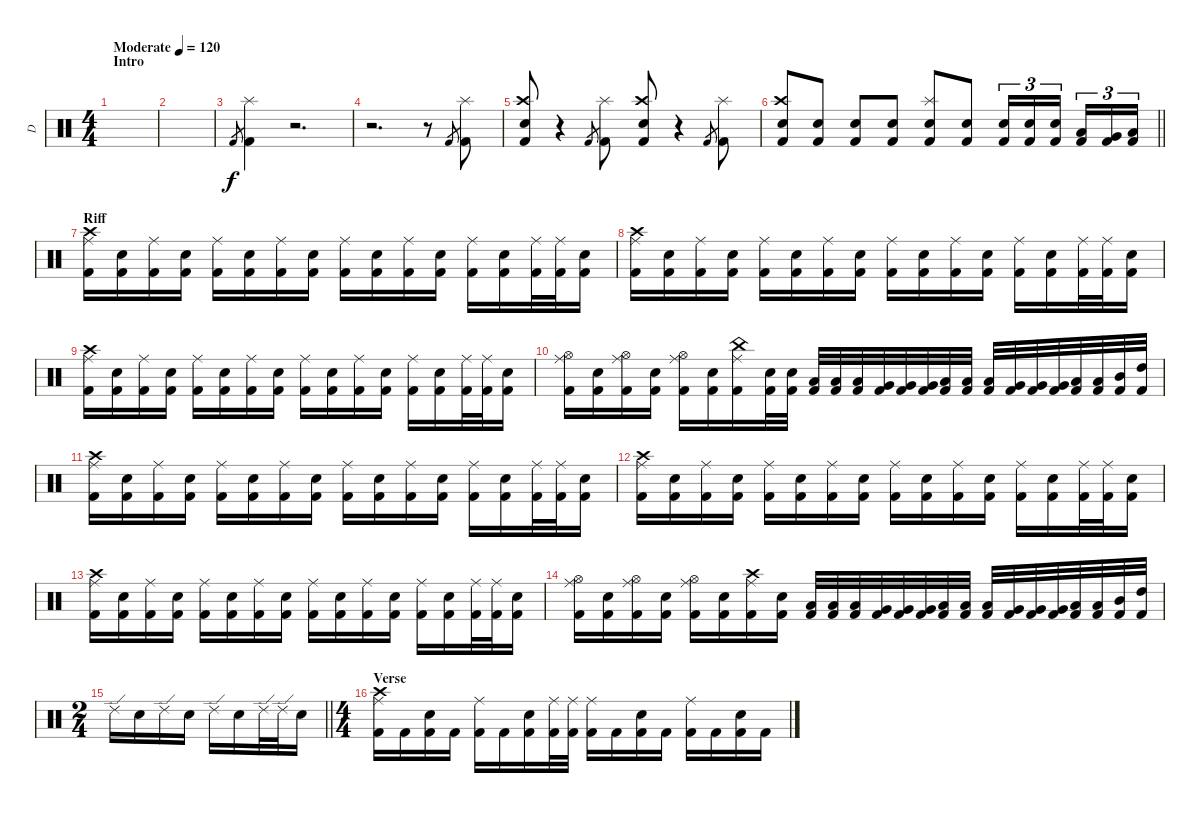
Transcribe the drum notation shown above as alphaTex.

\track ("D" "D") {instrument percussion}
\staff {score}
\articulation defaults
\ts (4 4)
\section ("" "Intro")
\tempo (120 "Moderate")
\clef neutral
\ks c
|
|
"Kick (hit) 2".8{gr} ("Splash (hit)" "Kick (hit) 2").4 r.2{d} |
r.2{d} r.8 "Kick (hit) 2".8{gr} ("Splash (hit)" "Kick (hit) 2").8 |
("Crash high (hit)" "Electric Snare (hit)" "Kick (hit) 2").8 r.4 "Kick (hit) 2".8{gr} ("Splash (hit)" "Kick (hit) 2").8 ("Crash high (hit)" "Electric Snare (hit)" "Kick (hit) 2").8 r.4 "Kick (hit) 2".8{gr} ("Splash (hit)" "Kick (hit) 2").8 |
\barLineRight lightlight
("Crash high (hit)" "Electric Snare (hit)" "Kick (hit) 2").8 ("Electric Snare (hit)" "Kick (hit) 2").8 ("Electric Snare (hit)" "Kick (hit) 2").8 ("Electric Snare (hit)" "Kick (hit) 2").8 ("Splash (hit)" "Electric Snare (hit)" "Kick (hit) 2").8 ("Electric Snare (hit)" "Kick (hit) 2").8 ("Electric Snare (hit)" "Kick (hit) 2").16{tu (3 2)} ("Electric Snare (hit)" "Kick (hit) 2").16{tu (3 2)} ("Electric Snare (hit)" "Kick (hit) 2").16{tu (3 2) beam splitsecondary} ("Low Floor Tom (hit)" "Kick (hit) 2").16{tu (3 2)} ("Very Low Tom (hit)" "Kick (hit) 2").16{tu (3 2)} ("Low Tom (hit)" "Kick (hit) 2").16{tu (3 2)} |
\section ("" "Riff")
("Crash high (hit)" "Ride (middle)" "Kick (hit) 2").16 ("Electric Snare (hit)" "Kick (hit) 2").16 ("Ride (middle)" "Kick (hit) 2").16 ("Electric Snare (hit)" "Kick (hit) 2").16 ("Ride (middle)" "Kick (hit) 2").16 ("Electric Snare (hit)" "Kick (hit) 2").16 ("Ride (middle)" "Kick (hit) 2").16 ("Electric Snare (hit)" "Kick (hit) 2").16 ("Ride (middle)" "Kick (hit) 2").16 ("Electric Snare (hit)" "Kick (hit) 2").16 ("Ride (middle)" "Kick (hit) 2").16 ("Electric Snare (hit)" "Kick (hit) 2").16 ("Ride (middle)" "Kick (hit) 2").16 ("Electric Snare (hit)" "Kick (hit) 2").16 ("Ride (middle)" "Kick (hit) 2").32 ("Ride (middle)" "Kick (hit) 2").32 ("Electric Snare (hit)" "Kick (hit) 2").16 |
("Crash high (hit)" "Ride (middle)" "Kick (hit) 2").16 ("Electric Snare (hit)" "Kick (hit) 2").16 ("Ride (middle)" "Kick (hit) 2").16 ("Electric Snare (hit)" "Kick (hit) 2").16 ("Ride (middle)" "Kick (hit) 2").16 ("Electric Snare (hit)" "Kick (hit) 2").16 ("Ride (middle)" "Kick (hit) 2").16 ("Electric Snare (hit)" "Kick (hit) 2").16 ("Ride (middle)" "Kick (hit) 2").16 ("Electric Snare (hit)" "Kick (hit) 2").16 ("Ride (middle)" "Kick (hit) 2").16 ("Electric Snare (hit)" "Kick (hit) 2").16 ("Ride (middle)" "Kick (hit) 2").16 ("Electric Snare (hit)" "Kick (hit) 2").16 ("Ride (middle)" "Kick (hit) 2").32 ("Ride (middle)" "Kick (hit) 2").32 ("Electric Snare (hit)" "Kick (hit) 2").16 |
("Crash high (hit)" "Ride (middle)" "Kick (hit) 2").16 ("Electric Snare (hit)" "Kick (hit) 2").16 ("Ride (middle)" "Kick (hit) 2").16 ("Electric Snare (hit)" "Kick (hit) 2").16 ("Ride (middle)" "Kick (hit) 2").16 ("Electric Snare (hit)" "Kick (hit) 2").16 ("Ride (middle)" "Kick (hit) 2").16 ("Electric Snare (hit)" "Kick (hit) 2").16 ("Ride (middle)" "Kick (hit) 2").16 ("Electric Snare (hit)" "Kick (hit) 2").16 ("Ride (middle)" "Kick (hit) 2").16 ("Electric Snare (hit)" "Kick (hit) 2").16 ("Ride (middle)" "Kick (hit) 2").16 ("Electric Snare (hit)" "Kick (hit) 2").16 ("Ride (middle)" "Kick (hit) 2").32 ("Ride (middle)" "Kick (hit) 2").32 ("Electric Snare (hit)" "Kick (hit) 2").16 |
("Hi-Hat (open)" "Ride (middle)" "Kick (hit) 2").16 ("Electric Snare (hit)" "Kick (hit) 2").16 ("Hi-Hat (open)" "Ride (middle)" "Kick (hit) 2").16 ("Electric Snare (hit)" "Kick (hit) 2").16 ("Hi-Hat (open)" "Ride (middle)" "Kick (hit) 2").16 ("Electric Snare (hit)" "Kick (hit) 2").16 ("China (hit)" "Ride (middle)" "Kick (hit) 2").16 ("Electric Snare (hit)" "Kick (hit) 2").32 ("Electric Snare (hit)" "Kick (hit) 2").32 ("Low Tom (hit)" "Kick (hit) 2").32 ("Low Tom (hit)" "Kick (hit) 2").32 ("Low Tom (hit)" "Kick (hit) 2").32 ("Very Low Tom (hit)" "Kick (hit) 2").32 ("Very Low Tom (hit)" "Kick (hit) 2").32 ("Very Low Tom (hit)" "Kick (hit) 2").32 ("Low Floor Tom (hit)" "Kick (hit) 2").32 ("Low Floor Tom (hit)" "Kick (hit) 2").32 ("Low Floor Tom (hit)" "Kick (hit) 2").32 ("Very Low Tom (hit)" "Kick (hit) 2").32 ("Very Low Tom (hit)" "Kick (hit) 2").32 ("Very Low Tom (hit)" "Kick (hit) 2").32 ("Low Tom (hit)" "Kick (hit) 2").32 ("Low Tom (hit)" "Kick (hit) 2").32 ("Mid Tom (hit)" "Kick (hit) 2").32 ("High Tom (hit)" "Kick (hit) 2").32 |
("Crash high (hit)" "Ride (middle)" "Kick (hit) 2").16 ("Electric Snare (hit)" "Kick (hit) 2").16 ("Ride (middle)" "Kick (hit) 2").16 ("Electric Snare (hit)" "Kick (hit) 2").16 ("Ride (middle)" "Kick (hit) 2").16 ("Electric Snare (hit)" "Kick (hit) 2").16 ("Ride (middle)" "Kick (hit) 2").16 ("Electric Snare (hit)" "Kick (hit) 2").16 ("Ride (middle)" "Kick (hit) 2").16 ("Electric Snare (hit)" "Kick (hit) 2").16 ("Ride (middle)" "Kick (hit) 2").16 ("Electric Snare (hit)" "Kick (hit) 2").16 ("Ride (middle)" "Kick (hit) 2").16 ("Electric Snare (hit)" "Kick (hit) 2").16 ("Ride (middle)" "Kick (hit) 2").32 ("Ride (middle)" "Kick (hit) 2").32 ("Electric Snare (hit)" "Kick (hit) 2").16 |
("Crash high (hit)" "Ride (middle)" "Kick (hit) 2").16 ("Electric Snare (hit)" "Kick (hit) 2").16 ("Ride (middle)" "Kick (hit) 2").16 ("Electric Snare (hit)" "Kick (hit) 2").16 ("Ride (middle)" "Kick (hit) 2").16 ("Electric Snare (hit)" "Kick (hit) 2").16 ("Ride (middle)" "Kick (hit) 2").16 ("Electric Snare (hit)" "Kick (hit) 2").16 ("Ride (middle)" "Kick (hit) 2").16 ("Electric Snare (hit)" "Kick (hit) 2").16 ("Ride (middle)" "Kick (hit) 2").16 ("Electric Snare (hit)" "Kick (hit) 2").16 ("Ride (middle)" "Kick (hit) 2").16 ("Electric Snare (hit)" "Kick (hit) 2").16 ("Ride (middle)" "Kick (hit) 2").32 ("Ride (middle)" "Kick (hit) 2").32 ("Electric Snare (hit)" "Kick (hit) 2").16 |
("Crash high (hit)" "Ride (middle)" "Kick (hit) 2").16 ("Electric Snare (hit)" "Kick (hit) 2").16 ("Ride (middle)" "Kick (hit) 2").16 ("Electric Snare (hit)" "Kick (hit) 2").16 ("Ride (middle)" "Kick (hit) 2").16 ("Electric Snare (hit)" "Kick (hit) 2").16 ("Ride (middle)" "Kick (hit) 2").16 ("Electric Snare (hit)" "Kick (hit) 2").16 ("Ride (middle)" "Kick (hit) 2").16 ("Electric Snare (hit)" "Kick (hit) 2").16 ("Ride (middle)" "Kick (hit) 2").16 ("Electric Snare (hit)" "Kick (hit) 2").16 ("Ride (middle)" "Kick (hit) 2").16 ("Electric Snare (hit)" "Kick (hit) 2").16 ("Ride (middle)" "Kick (hit) 2").32 ("Ride (middle)" "Kick (hit) 2").32 ("Electric Snare (hit)" "Kick (hit) 2").16 |
("Hi-Hat (open)" "Ride (middle)" "Kick (hit) 2").16 ("Electric Snare (hit)" "Kick (hit) 2").16 ("Hi-Hat (open)" "Ride (middle)" "Kick (hit) 2").16 ("Electric Snare (hit)" "Kick (hit) 2").16 ("Hi-Hat (open)" "Ride (middle)" "Kick (hit) 2").16 ("Electric Snare (hit)" "Kick (hit) 2").16 ("Crash high (hit)" "Ride (middle)" "Kick (hit) 2").16 ("Electric Snare (hit)" "Kick (hit) 2").16 ("Low Tom (hit)" "Kick (hit) 2").32 ("Low Tom (hit)" "Kick (hit) 2").32 ("Low Tom (hit)" "Kick (hit) 2").32 ("Very Low Tom (hit)" "Kick (hit) 2").32 ("Very Low Tom (hit)" "Kick (hit) 2").32 ("Very Low Tom (hit)" "Kick (hit) 2").32 ("Low Floor Tom (hit)" "Kick (hit) 2").32 ("Low Floor Tom (hit)" "Kick (hit) 2").32 ("Low Floor Tom (hit)" "Kick (hit) 2").32 ("Very Low Tom (hit)" "Kick (hit) 2").32 ("Very Low Tom (hit)" "Kick (hit) 2").32 ("Very Low Tom (hit)" "Kick (hit) 2").32 ("Low Tom (hit)" "Kick (hit) 2").32 ("Low Tom (hit)" "Kick (hit) 2").32 ("Mid Tom (hit)" "Kick (hit) 2").32 ("High Tom (hit)" "Kick (hit) 2").32 |
\ts (2 4)
\barLineRight lightlight "Ride (edge) 2".16 "Electric Snare (hit)".16 "Ride (edge) 2".16 "Electric Snare (hit)".16 "Ride (edge) 2".16 "Electric Snare (hit)".16 "Ride (edge) 2".32 "Ride (edge) 2".32 "Electric Snare (hit)".16
|
\ts (4 4)
\section ("" "Verse")
("Crash high (hit)" "Ride (middle)" "Kick (hit) 2").16 "Kick (hit) 2".16 ("Electric Snare (hit)" "Kick (hit) 2").16 "Kick (hit) 2".16 ("Ride (middle)" "Kick (hit) 2").16 "Kick (hit) 2".16 ("Electric Snare (hit)" "Kick (hit) 2").16 ("Ride (middle)" "Kick (hit) 2").32 ("Ride (middle)" "Kick (hit) 2").32 ("Ride (middle)" "Kick (hit) 2").16 "Kick (hit) 2".16 ("Electric Snare (hit)" "Kick (hit) 2").16 "Kick (hit) 2".16 ("Ride (middle)" "Kick (hit) 2").16 "Kick (hit) 2".16 ("Electric Snare (hit)" "Kick (hit) 2").16 "Kick (hit) 2".16
